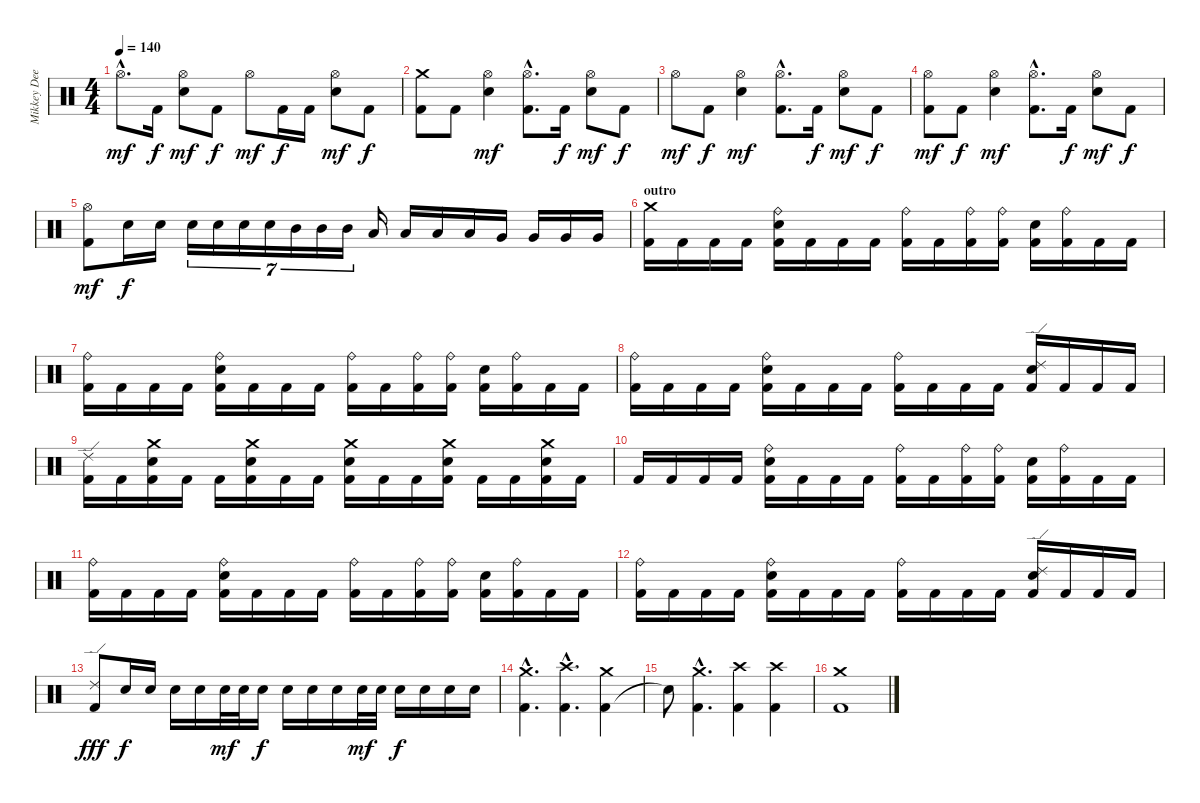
\track ("Mikkey Dee" "Mikkey Dee") {instrument percussion}
\staff {score}
\articulation defaults
\ts (4 4)
\tempo 140
\clef neutral
\ks c "Hi-Hat (open)"{hac}.8{d dy mf} "Kick (hit) 2".16{dy f}
("Hi-Hat (open)" "Snare (hit) 2").8{dy mf} "Kick (hit) 2".8{dy f} "Hi-Hat (open)".8{dy mf} "Kick (hit) 2".16{dy f} "Kick (hit) 2".16 ("Hi-Hat (open)" "Snare (hit) 2").8{dy mf} "Kick (hit) 2".8{dy f} |
("Kick (hit) 2" "Crash medium (hit)").8 "Kick (hit) 2".8 ("Hi-Hat (open)" "Snare (hit) 2").4{dy mf} ("Kick (hit) 2"{hac} "Hi-Hat (open)"{hac}).8{d} "Kick (hit) 2".16{dy f} ("Hi-Hat (open)" "Snare (hit) 2").8{dy mf} "Kick (hit) 2".8{dy f} |
"Hi-Hat (open)".8{dy mf} "Kick (hit) 2".8{dy f} ("Hi-Hat (open)" "Snare (hit) 2").4{dy mf} ("Kick (hit) 2"{hac} "Hi-Hat (open)"{hac}).8{d} "Kick (hit) 2".16{dy f} ("Hi-Hat (open)" "Snare (hit) 2").8{dy mf} "Kick (hit) 2".8{dy f} |
("Kick (hit) 2" "Hi-Hat (open)").8{dy mf} "Kick (hit) 2".8{dy f} ("Hi-Hat (open)" "Snare (hit) 2").4{dy mf} ("Kick (hit) 2"{hac} "Hi-Hat (open)"{hac}).8{d} "Kick (hit) 2".16{dy f} ("Hi-Hat (open)" "Snare (hit) 2").8{dy mf} "Kick (hit) 2".8{dy f} |
("Kick (hit) 2" "Hi-Hat (open)").8{dy mf} "Snare (hit) 2".16{dy f} "Snare (hit) 2".16 "Snare (hit) 2".16{tu (7 4)} "Snare (hit) 2".16{tu (7 4)} "Snare (hit) 2".16{tu (7 4)} "Snare (hit) 2".16{tu (7 4)} "Mid Tom (hit)".16{tu (7 4)} "Mid Tom (hit)".16{tu (7 4)} "Mid Tom (hit)".16{tu (7 4)} "Low Tom (hit)".16 "Low Tom (hit)".16 "Low Tom (hit)".16 "Low Tom (hit)".16 "Very Low Tom (hit)".16 "Very Low Tom (hit)".16 "Very Low Tom (hit)".16 "Very Low Tom (hit)".16 |
\section ("" "outro")
("Kick (hit) 2" "Crash medium (hit)").16 "Kick (hit) 2".16 "Kick (hit) 2".16 "Kick (hit) 2".16 ("Kick (hit) 2" "Ride (bell)" "Snare (hit) 2").16 "Kick (hit) 2".16 "Kick (hit) 2".16 "Kick (hit) 2".16 ("Kick (hit) 2" "Ride (bell)").16 "Kick (hit) 2".16 ("Kick (hit) 2" "Ride (bell)").16 ("Kick (hit) 2" "Ride (bell)").16 ("Kick (hit) 2" "Snare (hit) 2").16 ("Kick (hit) 2" "Ride (bell)").16 "Kick (hit) 2".16 "Kick (hit) 2".16 |
("Kick (hit) 2" "Ride (bell)").16 "Kick (hit) 2".16 "Kick (hit) 2".16 "Kick (hit) 2".16 ("Kick (hit) 2" "Ride (bell)" "Snare (hit) 2").16 "Kick (hit) 2".16 "Kick (hit) 2".16 "Kick (hit) 2".16 ("Kick (hit) 2" "Ride (bell)").16 "Kick (hit) 2".16 ("Kick (hit) 2" "Ride (bell)").16 ("Kick (hit) 2" "Ride (bell)").16 ("Kick (hit) 2" "Snare (hit) 2").16 ("Kick (hit) 2" "Ride (bell)").16 "Kick (hit) 2".16 "Kick (hit) 2".16 |
("Kick (hit) 2" "Ride (bell)").16 "Kick (hit) 2".16 "Kick (hit) 2".16 "Kick (hit) 2".16 ("Kick (hit) 2" "Ride (bell)" "Snare (hit) 2").16 "Kick (hit) 2".16 "Kick (hit) 2".16 "Kick (hit) 2".16 ("Kick (hit) 2" "Ride (bell)").16 "Kick (hit) 2".16 "Kick (hit) 2".16 "Kick (hit) 2".16 ("Kick (hit) 2" "Ride (edge) 2" "Snare (hit) 2").16 "Kick (hit) 2".16 "Kick (hit) 2".16 "Kick (hit) 2".16 |
("Kick (hit) 2" "Ride (edge) 2").16 "Kick (hit) 2".16 ("Kick (hit) 2" "Crash medium (hit)" "Snare (hit) 2").16 "Kick (hit) 2".16 "Kick (hit) 2".16 ("Kick (hit) 2" "Crash medium (hit)" "Snare (hit) 2").16 "Kick (hit) 2".16 "Kick (hit) 2".16 ("Kick (hit) 2" "Crash medium (hit)" "Snare (hit) 2").16 "Kick (hit) 2".16 "Kick (hit) 2".16 ("Kick (hit) 2" "Crash medium (hit)" "Snare (hit) 2").16 "Kick (hit) 2".16 "Kick (hit) 2".16 ("Kick (hit) 2" "Crash medium (hit)" "Snare (hit) 2").16 "Kick (hit) 2".16 |
"Kick (hit) 2".16 "Kick (hit) 2".16 "Kick (hit) 2".16 "Kick (hit) 2".16 ("Kick (hit) 2" "Ride (bell)" "Snare (hit) 2").16 "Kick (hit) 2".16 "Kick (hit) 2".16 "Kick (hit) 2".16 ("Kick (hit) 2" "Ride (bell)").16 "Kick (hit) 2".16 ("Kick (hit) 2" "Ride (bell)").16 ("Kick (hit) 2" "Ride (bell)").16 ("Kick (hit) 2" "Snare (hit) 2").16 ("Kick (hit) 2" "Ride (bell)").16 "Kick (hit) 2".16 "Kick (hit) 2".16 |
("Kick (hit) 2" "Ride (bell)").16 "Kick (hit) 2".16 "Kick (hit) 2".16 "Kick (hit) 2".16 ("Kick (hit) 2" "Ride (bell)" "Snare (hit) 2").16 "Kick (hit) 2".16 "Kick (hit) 2".16 "Kick (hit) 2".16 ("Kick (hit) 2" "Ride (bell)").16 "Kick (hit) 2".16 ("Kick (hit) 2" "Ride (bell)").16 ("Kick (hit) 2" "Ride (bell)").16 ("Kick (hit) 2" "Snare (hit) 2").16 ("Kick (hit) 2" "Ride (bell)").16 "Kick (hit) 2".16 "Kick (hit) 2".16 |
("Kick (hit) 2" "Ride (bell)").16 "Kick (hit) 2".16 "Kick (hit) 2".16 "Kick (hit) 2".16 ("Kick (hit) 2" "Ride (bell)" "Snare (hit) 2").16 "Kick (hit) 2".16 "Kick (hit) 2".16 "Kick (hit) 2".16 ("Kick (hit) 2" "Ride (bell)").16 "Kick (hit) 2".16 "Kick (hit) 2".16 "Kick (hit) 2".16 ("Kick (hit) 2" "Ride (edge) 2" "Snare (hit) 2").16 "Kick (hit) 2".16 "Kick (hit) 2".16 "Kick (hit) 2".16 |
("Kick (hit) 2" "Ride (edge) 2").8{dy fff} "Snare (hit) 2".16{dy f} "Snare (hit) 2".16 "Snare (hit) 2".16 "Snare (hit) 2".16 "Snare (hit) 2".32{dy mf} "Snare (hit) 2".32 "Snare (hit) 2".16{dy f} "Snare (hit) 2".16 "Snare (hit) 2".16 "Snare (hit) 2".16 "Snare (hit) 2".32{dy mf} "Snare (hit) 2".32 "Snare (hit) 2".16{dy f} "Snare (hit) 2".16 "Snare (hit) 2".16 "Snare (hit) 2".16 |
("Kick (hit) 2"{hac} "Crash medium (hit)"{hac}).4{d} ("Kick (hit) 2"{hac} "Crash high (hit)"{hac}).4{d} ("Kick (hit) 2" "Crash medium (hit)").4 |
"Snare (hit)"{t}.8 ("Kick (hit) 2"{hac} "Crash medium (hit)"{hac}).4{d} ("Kick (hit) 2" "Crash high (hit)").4 ("Kick (hit) 2" "Crash high (hit)").4 |
("Kick (hit) 2" "Crash medium (hit)").1
